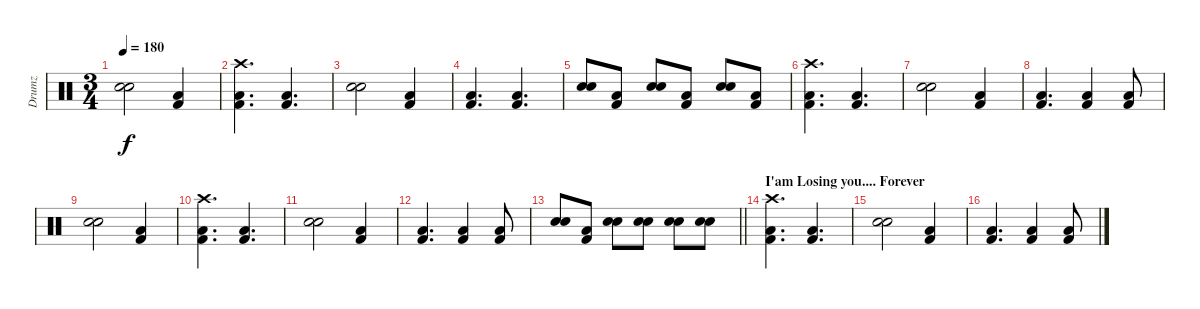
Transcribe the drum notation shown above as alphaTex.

\track ("Drumz" "Drumz") {instrument percussion}
\staff {score}
\articulation defaults
\ts (3 4)
\tempo 180
\clef neutral
\ks c
("Electric Snare (hit)" "Electric Snare (hit)").2{dy f} ("Kick (hit) 2" "Low Floor Tom (hit)").4 |
("Kick (hit) 2" "Low Floor Tom (hit)" "Crash high (hit)").4{d} ("Kick (hit) 2" "Low Floor Tom (hit)").4{d} |
("Electric Snare (hit)" "Electric Snare (hit)").2 ("Kick (hit) 2" "Low Floor Tom (hit)").4 |
("Kick (hit) 2" "Low Floor Tom (hit)").4{d} ("Kick (hit) 2" "Low Floor Tom (hit)").4{d} |
("Electric Snare (hit)" "Electric Snare (hit)").8 ("Kick (hit) 2" "Low Floor Tom (hit)").8 ("Electric Snare (hit)" "Electric Snare (hit)").8 ("Kick (hit) 2" "Low Floor Tom (hit)").8 ("Electric Snare (hit)" "Electric Snare (hit)").8 ("Kick (hit) 2" "Low Floor Tom (hit)").8 |
("Kick (hit) 2" "Low Floor Tom (hit)" "Crash high (hit)").4{d} ("Kick (hit) 2" "Low Floor Tom (hit)").4{d} |
("Electric Snare (hit)" "Electric Snare (hit)").2 ("Kick (hit) 2" "Low Floor Tom (hit)").4 |
("Kick (hit) 2" "Low Floor Tom (hit)").4{d} ("Kick (hit) 2" "Low Floor Tom (hit)").4 ("Kick (hit) 2" "Low Floor Tom (hit)").8 |
("Electric Snare (hit)" "Electric Snare (hit)").2 ("Kick (hit) 2" "Low Floor Tom (hit)").4 |
("Kick (hit) 2" "Low Floor Tom (hit)" "Crash high (hit)").4{d} ("Kick (hit) 2" "Low Floor Tom (hit)").4{d} |
("Electric Snare (hit)" "Electric Snare (hit)").2 ("Kick (hit) 2" "Low Floor Tom (hit)").4 |
("Kick (hit) 2" "Low Floor Tom (hit)").4{d} ("Kick (hit) 2" "Low Floor Tom (hit)").4 ("Kick (hit) 2" "Low Floor Tom (hit)").8 |
\barLineRight lightlight
("Electric Snare (hit)" "Electric Snare (hit)").8 ("Kick (hit) 2" "Low Floor Tom (hit)").8 ("Electric Snare (hit)" "Electric Snare (hit)").8 ("Electric Snare (hit)" "Electric Snare (hit)").8 ("Electric Snare (hit)" "Electric Snare (hit)").8 ("Electric Snare (hit)" "Electric Snare (hit)").8 |
\section ("" "I'am Losing you.... Forever")
("Kick (hit) 2" "Low Floor Tom (hit)" "Crash high (hit)").4{d} ("Kick (hit) 2" "Low Floor Tom (hit)").4{d} |
("Electric Snare (hit)" "Electric Snare (hit)").2 ("Kick (hit) 2" "Low Floor Tom (hit)").4 |
("Kick (hit) 2" "Low Floor Tom (hit)").4{d} ("Kick (hit) 2" "Low Floor Tom (hit)").4 ("Kick (hit) 2" "Low Floor Tom (hit)").8
